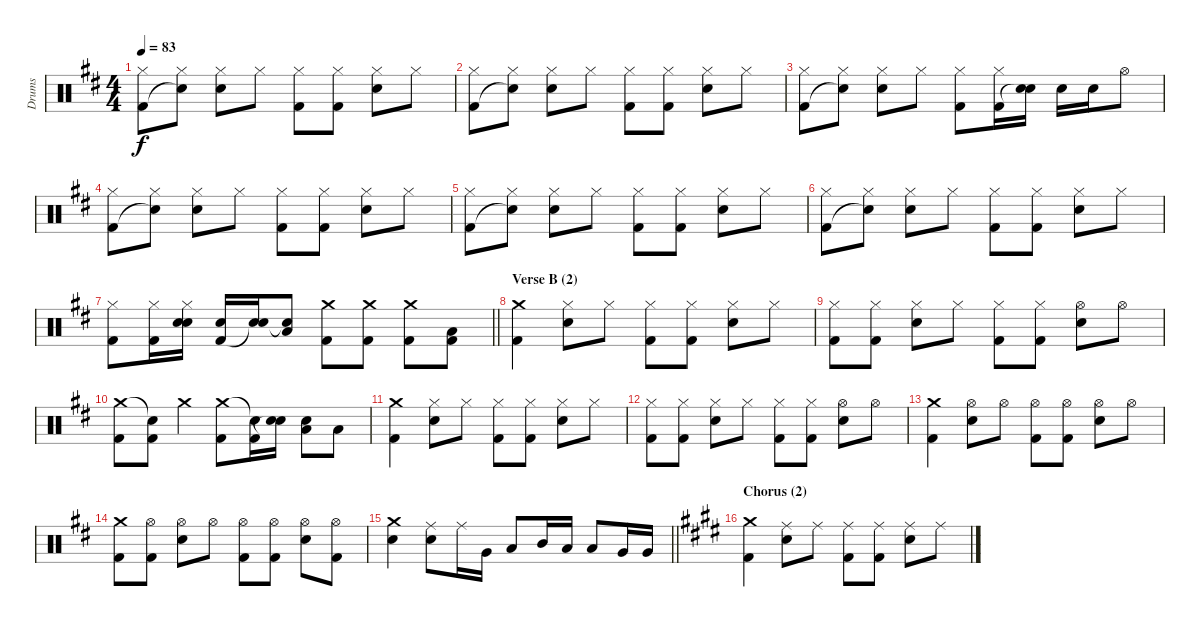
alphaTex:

\track ("Drums" "Drums") {instrument percussion}
\staff {score}
\articulation defaults
\ts (4 4)
\tempo 83
\clef neutral
\ks d
("Hi-Hat (closed)" "Kick (hit) 2").8{dy f} ("Hi-Hat (closed)" "Snare (hit)"{t}).8 ("Hi-Hat (closed)" "Electric Snare (hit)").8 "Hi-Hat (closed)".8 ("Hi-Hat (closed)" "Kick (hit) 2").8 ("Hi-Hat (closed)" "Kick (hit) 2").8 ("Hi-Hat (closed)" "Electric Snare (hit)").8 "Hi-Hat (closed)".8 |
("Hi-Hat (closed)" "Kick (hit) 2").8 ("Hi-Hat (closed)" "Snare (hit)"{t}).8 ("Hi-Hat (closed)" "Electric Snare (hit)").8 "Hi-Hat (closed)".8 ("Hi-Hat (closed)" "Kick (hit) 2").8 ("Hi-Hat (closed)" "Kick (hit) 2").8 ("Hi-Hat (closed)" "Electric Snare (hit)").8 "Hi-Hat (closed)".8 |
("Hi-Hat (closed)" "Kick (hit) 2").8 ("Hi-Hat (closed)" "Snare (hit)"{t}).8 ("Hi-Hat (closed)" "Electric Snare (hit)").8 "Hi-Hat (closed)".8 ("Hi-Hat (closed)" "Kick (hit) 2").8 ("Hi-Hat (closed)" "Kick (hit) 2").16 ("Electric Snare (hit)" "Snare (hit)"{t}).16 "Electric Snare (hit)".16 "Electric Snare (hit)".16 "Hi-Hat (open)".8 |
("Hi-Hat (closed)" "Kick (hit) 2").8 ("Hi-Hat (closed)" "Snare (hit)"{t}).8 ("Hi-Hat (closed)" "Electric Snare (hit)").8 "Hi-Hat (closed)".8 ("Hi-Hat (closed)" "Kick (hit) 2").8 ("Hi-Hat (closed)" "Kick (hit) 2").8 ("Hi-Hat (closed)" "Electric Snare (hit)").8 "Hi-Hat (closed)".8 |
("Hi-Hat (closed)" "Kick (hit) 2").8 ("Hi-Hat (closed)" "Snare (hit)"{t}).8 ("Hi-Hat (closed)" "Electric Snare (hit)").8 "Hi-Hat (closed)".8 ("Hi-Hat (closed)" "Kick (hit) 2").8 ("Hi-Hat (closed)" "Kick (hit) 2").8 ("Hi-Hat (closed)" "Electric Snare (hit)").8 "Hi-Hat (closed)".8 |
("Hi-Hat (closed)" "Kick (hit) 2").8 ("Hi-Hat (closed)" "Snare (hit)"{t}).8 ("Hi-Hat (closed)" "Electric Snare (hit)").8 "Hi-Hat (closed)".8 ("Hi-Hat (closed)" "Kick (hit) 2").8 ("Hi-Hat (closed)" "Kick (hit) 2").8 ("Hi-Hat (closed)" "Electric Snare (hit)").8 "Hi-Hat (closed)".8 |
\barLineRight lightlight
("Hi-Hat (closed)" "Kick (hit) 2").8 ("Hi-Hat (closed)" "Kick (hit) 2").16 ("Hi-Hat (closed)" "Electric Snare (hit)" "Snare (hit)").16 ("Electric Snare (hit)" "Kick (hit) 2").16 ("Electric Snare (hit)" "Snare (hit)"{t}).16 ("Low Tom (hit)" "Snare (hit)"{t}).8 ("Crash medium (hit)" "Kick (hit) 2").8 ("Crash medium (hit)" "Kick (hit) 2").8 ("Crash medium (hit)" "Kick (hit) 2").8 ("Low Floor Tom (hit)" "Kick (hit) 2").8 |
\section ("" "Verse B (2)")
("Crash medium (hit)" "Kick (hit) 2").4 ("Hi-Hat (closed)" "Electric Snare (hit)").8 "Hi-Hat (closed)".8 ("Hi-Hat (closed)" "Kick (hit) 2").8 ("Hi-Hat (closed)" "Kick (hit) 2").8 ("Hi-Hat (closed)" "Electric Snare (hit)").8 "Hi-Hat (closed)".8 |
("Hi-Hat (closed)" "Kick (hit) 2").8 ("Hi-Hat (closed)" "Kick (hit) 2").8 ("Hi-Hat (closed)" "Electric Snare (hit)").8 "Hi-Hat (closed)".8 ("Hi-Hat (closed)" "Kick (hit) 2").8 ("Hi-Hat (closed)" "Kick (hit) 2").8 ("Hi-Hat (open)" "Electric Snare (hit)").8 "Hi-Hat (open)".8 |
("Crash medium (hit)" "Kick (hit) 2").8 ("Snare (hit)"{t} "Kick (hit) 2").8 "Crash medium (hit)".4 ("Crash medium (hit)" "Kick (hit) 2").8 ("Snare (hit)"{t} "Kick (hit) 2").16 ("Electric Snare (hit)" "Snare (hit)"{t}).16 ("Electric Snare (hit)" "Low Floor Tom (hit)").8 "Low Floor Tom (hit)".8 |
("Crash medium (hit)" "Kick (hit) 2").4 ("Hi-Hat (closed)" "Electric Snare (hit)").8 "Hi-Hat (closed)".8 ("Hi-Hat (closed)" "Kick (hit) 2").8 ("Hi-Hat (closed)" "Kick (hit) 2").8 ("Hi-Hat (closed)" "Electric Snare (hit)").8 "Hi-Hat (closed)".8 |
("Hi-Hat (closed)" "Kick (hit) 2").8 ("Hi-Hat (closed)" "Kick (hit) 2").8 ("Hi-Hat (closed)" "Electric Snare (hit)").8 "Hi-Hat (closed)".8 ("Hi-Hat (closed)" "Kick (hit) 2").8 ("Hi-Hat (closed)" "Kick (hit) 2").8 ("Hi-Hat (open)" "Electric Snare (hit)").8 "Hi-Hat (open)".8 |
("Crash medium (hit)" "Kick (hit) 2").4 ("Hi-Hat (open)" "Electric Snare (hit)").8 "Hi-Hat (open)".8 ("Hi-Hat (open)" "Kick (hit) 2").8 ("Hi-Hat (open)" "Kick (hit) 2").8 ("Hi-Hat (open)" "Electric Snare (hit)").8 "Hi-Hat (open)".8 |
("Crash medium (hit)" "Kick (hit) 2").8 ("Hi-Hat (open)" "Kick (hit) 2").8 ("Hi-Hat (open)" "Electric Snare (hit)").8 "Hi-Hat (open)".8 ("Hi-Hat (open)" "Kick (hit) 2").8 ("Hi-Hat (open)" "Kick (hit) 2").8 ("Hi-Hat (open)" "Electric Snare (hit)").8 ("Hi-Hat (open)" "Kick (hit) 2").8 |
\barLineRight lightlight
("Crash medium (hit)" "Electric Snare (hit)").4 ("Ride (middle)" "Electric Snare (hit)").8 "Ride (middle)".16 "Very Low Tom (hit)".16 "Low Floor Tom (hit)".8 "Mid Tom (hit)".16 "Low Tom (hit)".16 "Low Tom (hit)".8 "Very Low Tom (hit)".16 "Very Low Tom (hit)".16 |
\section ("" "Chorus (2)")
\ks e
("Crash medium (hit)" "Kick (hit) 2").4 ("Ride (middle)" "Electric Snare (hit)").8 "Ride (middle)".8 ("Ride (middle)" "Kick (hit) 2").8 ("Ride (middle)" "Kick (hit) 2").8 ("Ride (middle)" "Electric Snare (hit)").8 "Ride (middle)".8
